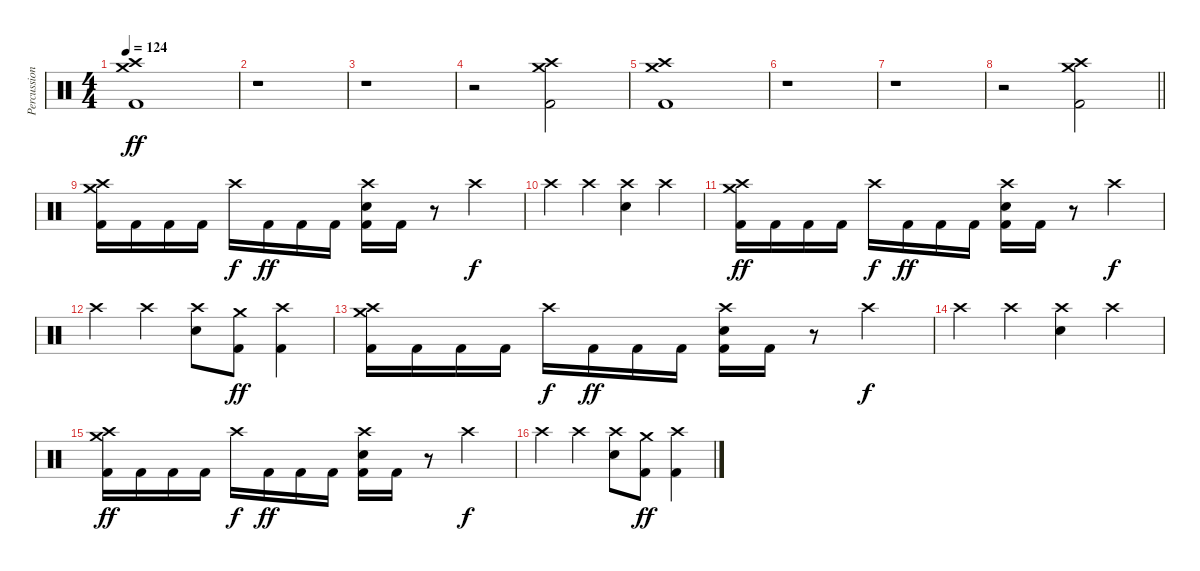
\track ("Percussion" "Percussion") {instrument percussion}
\staff {score}
\articulation defaults
\ts (4 4)
\tempo 124
\clef neutral
\ks c
("Crash medium (hit)" "Crash high (hit)" "Kick (hit) 2").1{dy ff} |
r.1 |
r.1 |
r.2 ("Crash medium (hit)" "Crash high (hit)" "Kick (hit) 2").2 |
("Crash medium (hit)" "Crash high (hit)" "Kick (hit) 2").1 |
r.1 |
r.1 |
\barLineRight lightlight
r.2 ("Crash medium (hit)" "Crash high (hit)" "Kick (hit) 2").2 |
("Crash medium (hit)" "Crash high (hit)" "Kick (hit) 2").16 "Kick (hit) 2".16 "Kick (hit) 2".16 "Kick (hit) 2".16 "Crash high (hit)".16{dy f} "Kick (hit) 2".16{dy ff} "Kick (hit) 2".16 "Kick (hit) 2".16 ("Crash high (hit)" "Electric Snare (hit)" "Kick (hit) 2").16 "Kick (hit) 2".16 r.8 "Crash high (hit)".4{dy f} |
"Crash high (hit)".4 "Crash high (hit)".4 ("Crash high (hit)" "Electric Snare (hit)").4 "Crash high (hit)".4 |
("Crash medium (hit)" "Crash high (hit)" "Kick (hit) 2").16{dy ff} "Kick (hit) 2".16 "Kick (hit) 2".16 "Kick (hit) 2".16 "Crash high (hit)".16{dy f} "Kick (hit) 2".16{dy ff} "Kick (hit) 2".16 "Kick (hit) 2".16 ("Crash high (hit)" "Electric Snare (hit)" "Kick (hit) 2").16 "Kick (hit) 2".16 r.8 "Crash high (hit)".4{dy f} |
"Crash high (hit)".4 "Crash high (hit)".4 ("Crash high (hit)" "Electric Snare (hit)").8 ("Crash medium (hit)" "Kick (hit) 2").8{dy ff} ("Crash high (hit)" "Kick (hit) 2").4 |
("Crash medium (hit)" "Crash high (hit)" "Kick (hit) 2").16 "Kick (hit) 2".16 "Kick (hit) 2".16 "Kick (hit) 2".16 "Crash high (hit)".16{dy f} "Kick (hit) 2".16{dy ff} "Kick (hit) 2".16 "Kick (hit) 2".16 ("Crash high (hit)" "Electric Snare (hit)" "Kick (hit) 2").16 "Kick (hit) 2".16 r.8 "Crash high (hit)".4{dy f} |
"Crash high (hit)".4 "Crash high (hit)".4 ("Crash high (hit)" "Electric Snare (hit)").4 "Crash high (hit)".4 |
("Crash medium (hit)" "Crash high (hit)" "Kick (hit) 2").16{dy ff} "Kick (hit) 2".16 "Kick (hit) 2".16 "Kick (hit) 2".16 "Crash high (hit)".16{dy f} "Kick (hit) 2".16{dy ff} "Kick (hit) 2".16 "Kick (hit) 2".16 ("Crash high (hit)" "Electric Snare (hit)" "Kick (hit) 2").16 "Kick (hit) 2".16 r.8 "Crash high (hit)".4{dy f} |
"Crash high (hit)".4 "Crash high (hit)".4 ("Crash high (hit)" "Electric Snare (hit)").8 ("Crash medium (hit)" "Kick (hit) 2").8{dy ff} ("Crash high (hit)" "Kick (hit) 2").4
